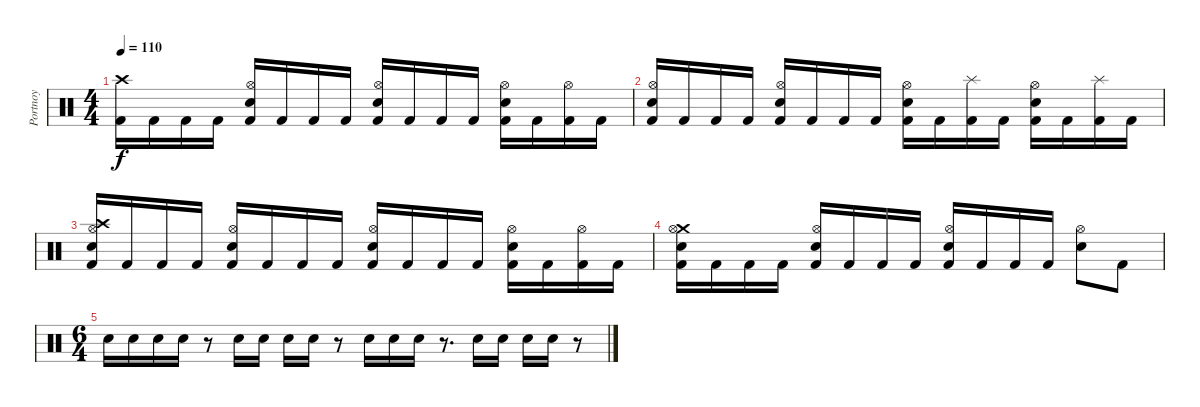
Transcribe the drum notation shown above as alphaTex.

\track ("Portnoy" "Portnoy") {instrument percussion}
\staff {score}
\articulation defaults
\ts (4 4)
\tempo 110
\clef neutral
\ks c
("Kick (hit) 2" "Crash high (hit)").16{dy f} "Kick (hit) 2".16 "Kick (hit) 2".16 "Kick (hit) 2".16 ("Kick (hit) 2" "Hi-Hat (open)" "Snare (hit) 2").16 "Kick (hit) 2".16 "Kick (hit) 2".16 "Kick (hit) 2".16 ("Kick (hit) 2" "Hi-Hat (open)" "Snare (hit) 2").16 "Kick (hit) 2".16 "Kick (hit) 2".16 "Kick (hit) 2".16 ("Kick (hit) 2" "Hi-Hat (open)" "Snare (hit) 2").16 "Kick (hit) 2".16 ("Kick (hit) 2" "Hi-Hat (open)").16 "Kick (hit) 2".16 |
("Kick (hit) 2" "Hi-Hat (open)" "Snare (hit) 2").16 "Kick (hit) 2".16 "Kick (hit) 2".16 "Kick (hit) 2".16 ("Kick (hit) 2" "Hi-Hat (open)" "Snare (hit) 2").16 "Kick (hit) 2".16 "Kick (hit) 2".16 "Kick (hit) 2".16 ("Kick (hit) 2" "Hi-Hat (open)" "Snare (hit) 2").16 "Kick (hit) 2".16 ("Kick (hit) 2" "Splash (hit)").16 "Kick (hit) 2".16 ("Kick (hit) 2" "Hi-Hat (open)" "Snare (hit) 2").16 "Kick (hit) 2".16 ("Kick (hit) 2" "Splash (hit)").16 "Kick (hit) 2".16 |
("Kick (hit) 2" "Crash high (hit)" "Hi-Hat (open)" "Snare (hit) 2").16 "Kick (hit) 2".16 "Kick (hit) 2".16 "Kick (hit) 2".16 ("Kick (hit) 2" "Hi-Hat (open)" "Snare (hit) 2").16 "Kick (hit) 2".16 "Kick (hit) 2".16 "Kick (hit) 2".16 ("Kick (hit) 2" "Hi-Hat (open)" "Snare (hit) 2").16 "Kick (hit) 2".16 "Kick (hit) 2".16 "Kick (hit) 2".16 ("Kick (hit) 2" "Hi-Hat (open)" "Snare (hit) 2").16 "Kick (hit) 2".16 ("Kick (hit) 2" "Hi-Hat (open)").16 "Kick (hit) 2".16 |
("Kick (hit) 2" "Crash medium (hit)" "Hi-Hat (open)" "Snare (hit) 2").16 "Kick (hit) 2".16 "Kick (hit) 2".16 "Kick (hit) 2".16 ("Kick (hit) 2" "Hi-Hat (open)" "Snare (hit) 2").16 "Kick (hit) 2".16 "Kick (hit) 2".16 "Kick (hit) 2".16 ("Kick (hit) 2" "Hi-Hat (open)" "Snare (hit) 2").16 "Kick (hit) 2".16 "Kick (hit) 2".16 "Kick (hit) 2".16 ("Hi-Hat (open)" "Snare (hit) 2").8 "Kick (hit) 2".8 |
\ts (6 4)
"Snare (hit) 2".16 "Snare (hit) 2".16 "Snare (hit) 2".16 "Snare (hit) 2".16 r.8 "Snare (hit) 2".16 "Snare (hit) 2".16 "Snare (hit) 2".16 "Snare (hit) 2".16 r.8 "Snare (hit) 2".16 "Snare (hit) 2".16 "Snare (hit) 2".16 r.8{d} "Snare (hit) 2".16 "Snare (hit) 2".16 "Snare (hit) 2".16 "Snare (hit) 2".16 r.8
